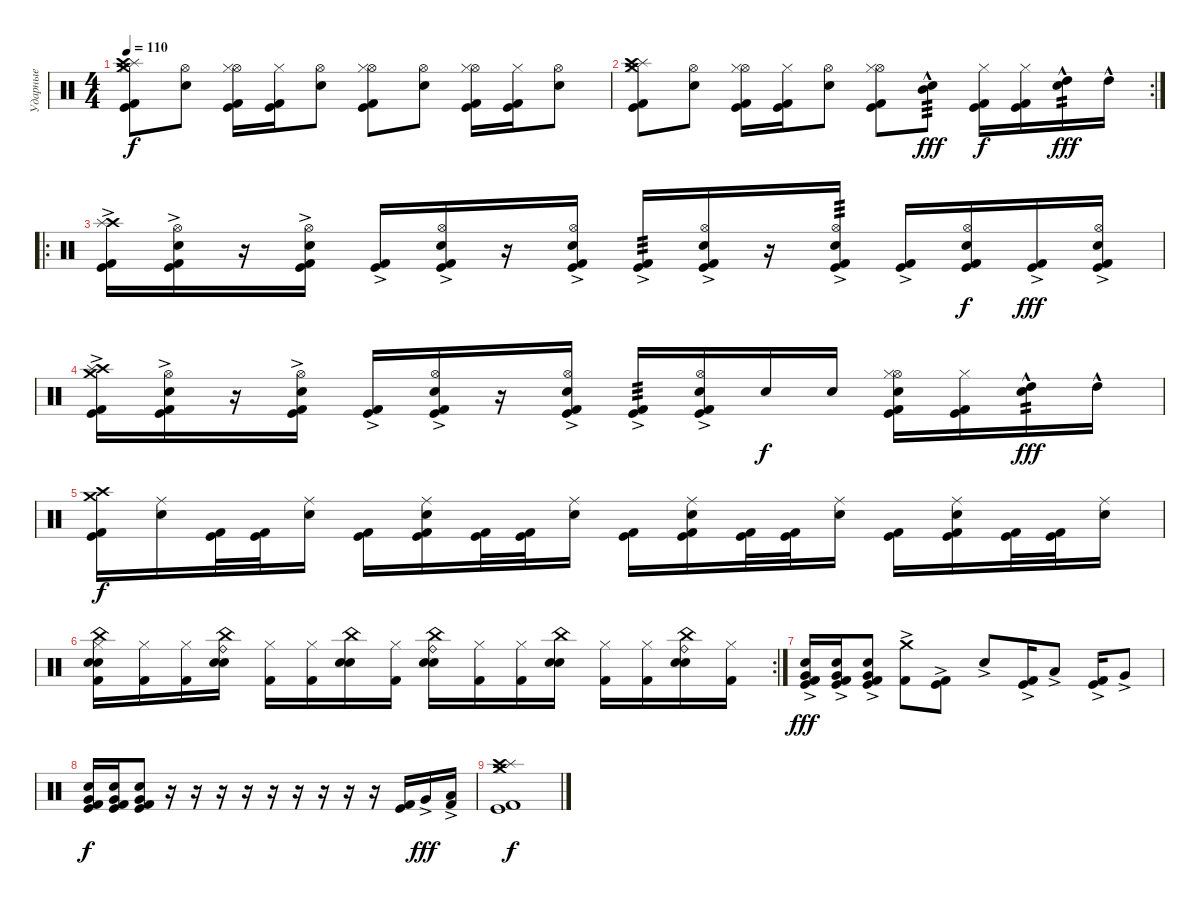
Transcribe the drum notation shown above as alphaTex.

\track ("Ударные" "Ударные") {instrument percussion}
\staff {score}
\articulation defaults
\ts (4 4)
\tempo 110
\clef neutral
\ks c
("Splash (hit)" "Crash medium (hit)" "Crash high (hit)" "Kick (hit)" "Kick (hit) 2" "Hi-Hat (closed)").8{dy f} ("Hi-Hat (open)" "Electric Snare (hit)").8 ("Hi-Hat (open)" "Kick (hit)" "Kick (hit) 2" "Hi-Hat (closed)").16 ("Kick (hit)" "Kick (hit) 2" "Hi-Hat (closed)").16 ("Hi-Hat (open)" "Electric Snare (hit)").8 ("Hi-Hat (open)" "Kick (hit)" "Kick (hit) 2" "Hi-Hat (closed)").8 ("Hi-Hat (open)" "Electric Snare (hit)").8 ("Hi-Hat (open)" "Kick (hit)" "Kick (hit) 2" "Hi-Hat (closed)").16 ("Kick (hit)" "Kick (hit) 2" "Hi-Hat (closed)").16 ("Hi-Hat (open)" "Electric Snare (hit)").8 |
\rc 2
("Splash (hit)" "Crash medium (hit)" "Crash high (hit)" "Kick (hit)" "Kick (hit) 2" "Hi-Hat (closed)").8 ("Hi-Hat (open)" "Electric Snare (hit)").8 ("Hi-Hat (open)" "Kick (hit)" "Kick (hit) 2" "Hi-Hat (closed)").16 ("Kick (hit)" "Kick (hit) 2" "Hi-Hat (closed)").16 ("Hi-Hat (open)" "Electric Snare (hit)").8 ("Hi-Hat (open)" "Kick (hit)" "Kick (hit) 2" "Hi-Hat (closed)").8 ("Mid Tom (hit)"{hac} "Electric Snare (hit)").8{tp 3 dy fff} ("Kick (hit)" "Kick (hit) 2" "Hi-Hat (closed)").16{dy f} ("Kick (hit)" "Kick (hit) 2" "Hi-Hat (closed)").16 ("High Tom (hit)"{hac} "Electric Snare (hit)").16{tp 2 dy fff} "High Tom (hit)"{hac}.16 |
\ro
("Crash high (hit)" "Splash (hit)" "Kick (hit)" "Kick (hit) 2"{ac}).16 ("Hi-Hat (open)" "Electric Snare (hit)" "Kick (hit)" "Kick (hit) 2"{ac}).16 r.16 ("Hi-Hat (open)" "Electric Snare (hit)" "Kick (hit)" "Kick (hit) 2"{ac}).16 ("Kick (hit)" "Kick (hit) 2"{ac}).16 ("Hi-Hat (open)" "Electric Snare (hit)" "Kick (hit)" "Kick (hit) 2"{ac}).16 r.16 ("Hi-Hat (open)" "Electric Snare (hit)" "Kick (hit)" "Kick (hit) 2"{ac}).16 ("Kick (hit)" "Kick (hit) 2"{ac}).16{tp 3} ("Hi-Hat (open)" "Electric Snare (hit)" "Kick (hit)" "Kick (hit) 2"{ac}).16 r.16 ("Hi-Hat (open)" "Electric Snare (hit)" "Kick (hit)" "Kick (hit) 2"{ac}).16{tp 3} ("Kick (hit)" "Kick (hit) 2"{ac}).16 ("Hi-Hat (open)" "Electric Snare (hit)" "Kick (hit)" "Kick (hit) 2").16{dy f} ("Kick (hit)" "Kick (hit) 2"{ac}).16{dy fff} ("Hi-Hat (open)" "Electric Snare (hit)" "Kick (hit)" "Kick (hit) 2"{ac}).16 |
("Crash high (hit)" "Crash medium (hit)" "Splash (hit)" "Kick (hit)" "Kick (hit) 2"{ac}).16 ("Hi-Hat (open)" "Electric Snare (hit)" "Kick (hit)" "Kick (hit) 2"{ac}).16 r.16 ("Hi-Hat (open)" "Electric Snare (hit)" "Kick (hit)" "Kick (hit) 2"{ac}).16 ("Kick (hit)" "Kick (hit) 2"{ac}).16 ("Hi-Hat (open)" "Electric Snare (hit)" "Kick (hit)" "Kick (hit) 2"{ac}).16 r.16 ("Hi-Hat (open)" "Electric Snare (hit)" "Kick (hit)" "Kick (hit) 2"{ac}).16 ("Kick (hit)" "Kick (hit) 2"{ac}).16{tp 3} ("Hi-Hat (open)" "Electric Snare (hit)" "Kick (hit)" "Kick (hit) 2"{ac}).16 "Electric Snare (hit)".16{dy f} "Electric Snare (hit)".16 ("Hi-Hat (open)" "Electric Snare (hit)" "Kick (hit)" "Kick (hit) 2" "Hi-Hat (closed)").16 ("Kick (hit)" "Kick (hit) 2" "Hi-Hat (closed)").16 ("High Tom (hit)"{hac} "Electric Snare (hit)").16{tp 2 dy fff} "High Tom (hit)"{hac}.16 |
("Crash high (hit)" "Crash medium (hit)" "Kick (hit)" "Kick (hit) 2").16{dy f} ("Ride (middle)" "Electric Snare (hit)").16 ("Kick (hit)" "Kick (hit) 2").32 ("Kick (hit)" "Kick (hit) 2").32 ("Ride (middle)" "Electric Snare (hit)").16 ("Kick (hit)" "Kick (hit) 2").16 ("Ride (middle)" "Electric Snare (hit)" "Kick (hit)" "Kick (hit) 2").16 ("Kick (hit)" "Kick (hit) 2").32 ("Kick (hit)" "Kick (hit) 2").32 ("Ride (middle)" "Electric Snare (hit)").16 ("Kick (hit)" "Kick (hit) 2").16 ("Ride (middle)" "Electric Snare (hit)" "Kick (hit)" "Kick (hit) 2").16 ("Kick (hit)" "Kick (hit) 2").32 ("Kick (hit)" "Kick (hit) 2").32 ("Ride (middle)" "Electric Snare (hit)").16 ("Kick (hit)" "Kick (hit) 2").16 ("Ride (middle)" "Electric Snare (hit)" "Kick (hit)" "Kick (hit) 2").16 ("Kick (hit)" "Kick (hit) 2").32 ("Kick (hit)" "Kick (hit) 2").32 ("Ride (middle)" "Electric Snare (hit)").16 |
\rc 2
("China (hit)" "Electric Snare (hit)" "Snare (hit) 2" "Hi-Hat (closed)" "Kick (hit) 2").16 ("Hi-Hat (closed)" "Kick (hit) 2").16 ("Hi-Hat (closed)" "Kick (hit) 2").16 ("Ride (bell)" "China (hit)" "Electric Snare (hit)" "Snare (hit) 2").16 ("Hi-Hat (closed)" "Kick (hit) 2").16 ("Hi-Hat (closed)" "Kick (hit) 2").16 ("China (hit)" "Electric Snare (hit)" "Snare (hit) 2").16 ("Hi-Hat (closed)" "Kick (hit) 2").16 ("Ride (bell)" "China (hit)" "Electric Snare (hit)" "Snare (hit) 2").16 ("Hi-Hat (closed)" "Kick (hit) 2").16 ("Hi-Hat (closed)" "Kick (hit) 2").16 ("China (hit)" "Electric Snare (hit)" "Snare (hit) 2").16 ("Hi-Hat (closed)" "Kick (hit) 2").16 ("Hi-Hat (closed)" "Kick (hit) 2").16 ("China (hit)" "Ride (bell)" "Electric Snare (hit)" "Snare (hit) 2").16 ("Hi-Hat (closed)" "Kick (hit) 2").16 |
("Electric Snare (hit)" "Very Low Tom (hit)" "Kick (hit)" "Kick (hit) 2"{ac}).16{dy fff} ("Electric Snare (hit)" "Very Low Tom (hit)" "Kick (hit)" "Kick (hit) 2"{ac}).16 ("Electric Snare (hit)" "Very Low Tom (hit)" "Kick (hit)" "Kick (hit) 2"{ac}).8 ("Crash medium (hit)" "Kick (hit) 2"{ac}).8 ("Kick (hit)" "Kick (hit) 2"{ac}).8 "Electric Snare (hit)"{ac}.8 ("Kick (hit)" "Kick (hit) 2"{ac}).16 "Low Tom (hit)"{ac}.8 ("Kick (hit)" "Kick (hit) 2"{ac}).16 "Very Low Tom (hit)"{ac}.8 |
("Electric Snare (hit)" "Very Low Tom (hit)" "Kick (hit)" "Kick (hit) 2").16{dy f} ("Electric Snare (hit)" "Very Low Tom (hit)" "Kick (hit)" "Kick (hit) 2").16 ("Electric Snare (hit)" "Very Low Tom (hit)" "Kick (hit)" "Kick (hit) 2").8 r.16 r.16 r.16 r.16 r.16 r.16 r.16 r.16 r.16 ("Kick (hit)" "Kick (hit) 2").16 "Very Low Tom (hit)"{ac}.16{dy fff} ("Low Tom (hit)"{ac} "Kick (hit) 2").16 |
("Splash (hit)" "Crash medium (hit)" "Crash high (hit)" "Kick (hit)" "Kick (hit) 2" "Hi-Hat (closed)").1{dy f}
